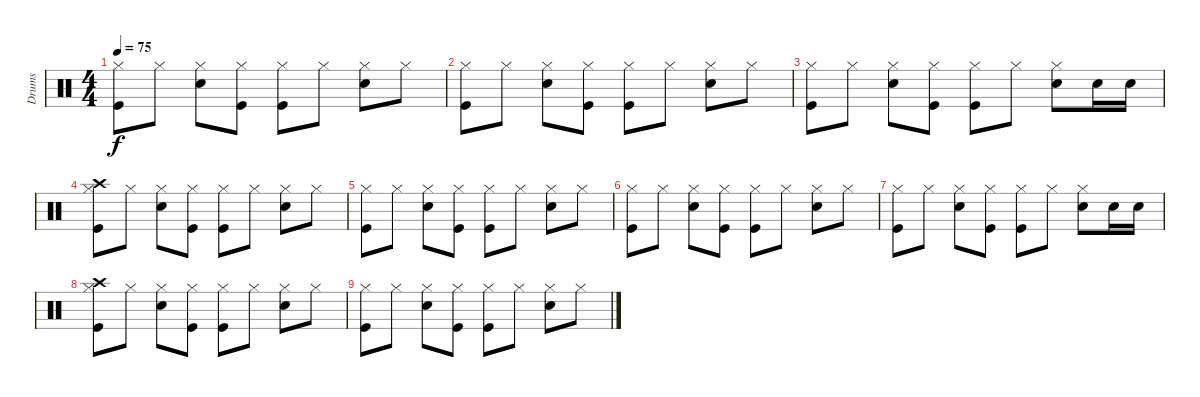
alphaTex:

\track ("Drums" "Drums") {instrument percussion}
\staff {score}
\articulation defaults
\ts (4 4)
\tempo 75
\clef neutral
\ks c
("Hi-Hat (closed)" "Kick (hit)").8{dy f} "Hi-Hat (closed)".8 ("Hi-Hat (closed)" "Snare (hit) 2").8 ("Hi-Hat (closed)" "Kick (hit)").8 ("Hi-Hat (closed)" "Kick (hit)").8 "Hi-Hat (closed)".8 ("Hi-Hat (closed)" "Snare (hit) 2").8 "Hi-Hat (closed)".8 |
("Hi-Hat (closed)" "Kick (hit)").8 "Hi-Hat (closed)".8 ("Hi-Hat (closed)" "Snare (hit) 2").8 ("Hi-Hat (closed)" "Kick (hit)").8 ("Hi-Hat (closed)" "Kick (hit)").8 "Hi-Hat (closed)".8 ("Hi-Hat (closed)" "Snare (hit) 2").8 "Hi-Hat (closed)".8 |
("Hi-Hat (closed)" "Kick (hit)").8 "Hi-Hat (closed)".8 ("Hi-Hat (closed)" "Snare (hit) 2").8 ("Hi-Hat (closed)" "Kick (hit)").8 ("Hi-Hat (closed)" "Kick (hit)").8 "Hi-Hat (closed)".8 ("Hi-Hat (closed)" "Snare (hit) 2").8 "Snare (hit) 2".16 "Snare (hit) 2".16 |
("Crash high (hit)" "Hi-Hat (closed)" "Kick (hit)").8 "Hi-Hat (closed)".8 ("Hi-Hat (closed)" "Snare (hit) 2").8 ("Hi-Hat (closed)" "Kick (hit)").8 ("Hi-Hat (closed)" "Kick (hit)").8 "Hi-Hat (closed)".8 ("Hi-Hat (closed)" "Snare (hit) 2").8 "Hi-Hat (closed)".8 |
("Hi-Hat (closed)" "Kick (hit)").8 "Hi-Hat (closed)".8 ("Hi-Hat (closed)" "Snare (hit) 2").8 ("Hi-Hat (closed)" "Kick (hit)").8 ("Hi-Hat (closed)" "Kick (hit)").8 "Hi-Hat (closed)".8 ("Hi-Hat (closed)" "Snare (hit) 2").8 "Hi-Hat (closed)".8 |
("Hi-Hat (closed)" "Kick (hit)").8 "Hi-Hat (closed)".8 ("Hi-Hat (closed)" "Snare (hit) 2").8 ("Hi-Hat (closed)" "Kick (hit)").8 ("Hi-Hat (closed)" "Kick (hit)").8 "Hi-Hat (closed)".8 ("Hi-Hat (closed)" "Snare (hit) 2").8 "Hi-Hat (closed)".8 |
("Hi-Hat (closed)" "Kick (hit)").8 "Hi-Hat (closed)".8 ("Hi-Hat (closed)" "Snare (hit) 2").8 ("Hi-Hat (closed)" "Kick (hit)").8 ("Hi-Hat (closed)" "Kick (hit)").8 "Hi-Hat (closed)".8 ("Hi-Hat (closed)" "Snare (hit) 2").8 "Snare (hit) 2".16 "Snare (hit) 2".16 |
("Crash high (hit)" "Hi-Hat (closed)" "Kick (hit)").8 "Hi-Hat (closed)".8 ("Hi-Hat (closed)" "Snare (hit) 2").8 ("Hi-Hat (closed)" "Kick (hit)").8 ("Hi-Hat (closed)" "Kick (hit)").8 "Hi-Hat (closed)".8 ("Hi-Hat (closed)" "Snare (hit) 2").8 "Hi-Hat (closed)".8 |
("Hi-Hat (closed)" "Kick (hit)").8 "Hi-Hat (closed)".8 ("Hi-Hat (closed)" "Snare (hit) 2").8 ("Hi-Hat (closed)" "Kick (hit)").8 ("Hi-Hat (closed)" "Kick (hit)").8 "Hi-Hat (closed)".8 ("Hi-Hat (closed)" "Snare (hit) 2").8 "Hi-Hat (closed)".8
